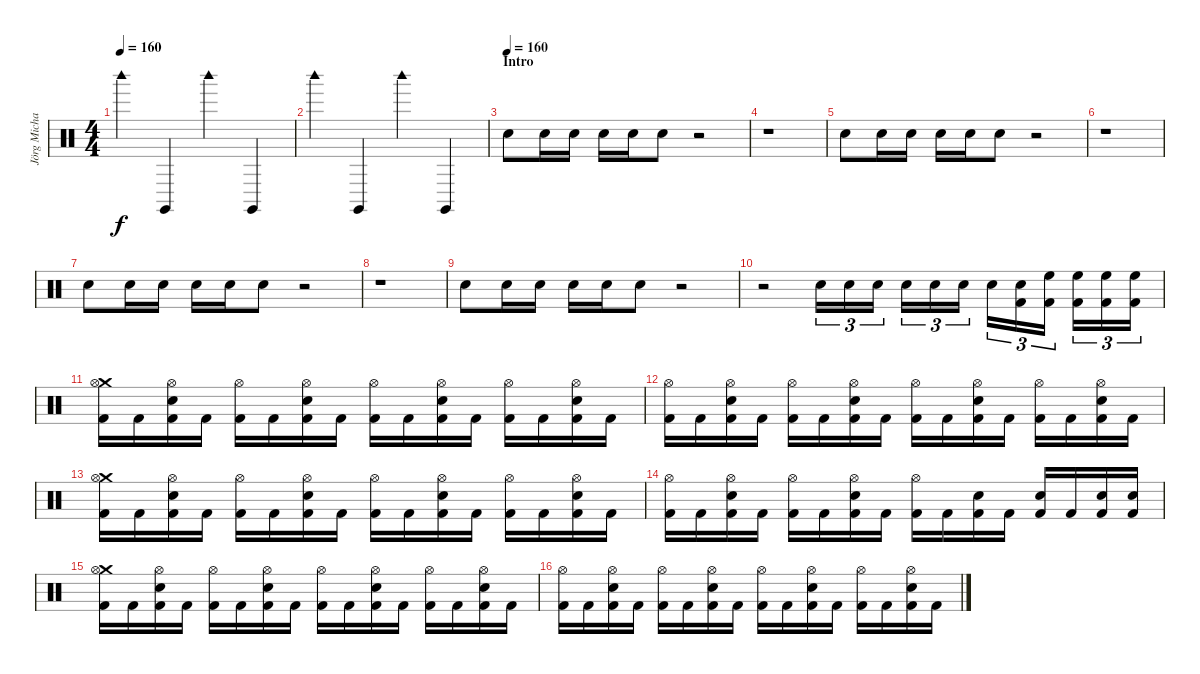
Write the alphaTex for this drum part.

\track ("Jörg Michael" "Jörg Micha") {instrument percussion}
\staff {score}
\articulation defaults
\ts (4 4)
\tempo 160
\tempo 75
\tempo 160
\clef neutral
\ks c "Woodblock high (hit)".4{dy f volume 16} "Claves (hit)".4 "Woodblock high (hit)".4 "Claves (hit)".4
|
"Woodblock high (hit)".4 "Claves (hit)".4 "Woodblock high (hit)".4 "Claves (hit)".4 |
\section ("" "Intro")
\tempo (160)
"Electric Snare (hit)".8{volume 14} "Electric Snare (hit)".16 "Electric Snare (hit)".16 "Electric Snare (hit)".16 "Electric Snare (hit)".16 "Electric Snare (hit)".8 r.2 |
r.1 |
"Electric Snare (hit)".8 "Electric Snare (hit)".16 "Electric Snare (hit)".16 "Electric Snare (hit)".16 "Electric Snare (hit)".16 "Electric Snare (hit)".8 r.2 |
r.1 |
"Electric Snare (hit)".8 "Electric Snare (hit)".16 "Electric Snare (hit)".16 "Electric Snare (hit)".16 "Electric Snare (hit)".16 "Electric Snare (hit)".8 r.2 |
r.1 |
"Electric Snare (hit)".8 "Electric Snare (hit)".16 "Electric Snare (hit)".16 "Electric Snare (hit)".16 "Electric Snare (hit)".16 "Electric Snare (hit)".8 r.2 |
r.2 "Electric Snare (hit)".16{tu (3 2)} "Electric Snare (hit)".16{tu (3 2)} "Electric Snare (hit)".16{tu (3 2)} "Electric Snare (hit)".16{tu (3 2)} "Electric Snare (hit)".16{tu (3 2)} "Electric Snare (hit)".16{tu (3 2)} "Electric Snare (hit)".16{tu (3 2)} ("Electric Snare (hit)" "Kick (hit) 2").16{tu (3 2)} ("High Floor Tom (hit)" "Kick (hit) 2").16{tu (3 2)} ("High Floor Tom (hit)" "Kick (hit) 2").16{tu (3 2)} ("High Floor Tom (hit)" "Kick (hit) 2").16{tu (3 2)} ("High Floor Tom (hit)" "Kick (hit) 2").16{tu (3 2)} |
("Crash medium (hit)" "Hi-Hat (open)" "Kick (hit) 2").16 "Kick (hit) 2".16 ("Electric Snare (hit)" "Hi-Hat (open)" "Kick (hit) 2").16 "Kick (hit) 2".16 ("Hi-Hat (open)" "Kick (hit) 2").16 "Kick (hit) 2".16 ("Electric Snare (hit)" "Hi-Hat (open)" "Kick (hit) 2").16 "Kick (hit) 2".16 ("Hi-Hat (open)" "Kick (hit) 2").16 "Kick (hit) 2".16 ("Electric Snare (hit)" "Hi-Hat (open)" "Kick (hit) 2").16 "Kick (hit) 2".16 ("Hi-Hat (open)" "Kick (hit) 2").16 "Kick (hit) 2".16 ("Electric Snare (hit)" "Hi-Hat (open)" "Kick (hit) 2").16 "Kick (hit) 2".16 |
("Hi-Hat (open)" "Kick (hit) 2").16 "Kick (hit) 2".16 ("Electric Snare (hit)" "Hi-Hat (open)" "Kick (hit) 2").16 "Kick (hit) 2".16 ("Hi-Hat (open)" "Kick (hit) 2").16 "Kick (hit) 2".16 ("Electric Snare (hit)" "Hi-Hat (open)" "Kick (hit) 2").16 "Kick (hit) 2".16 ("Hi-Hat (open)" "Kick (hit) 2").16 "Kick (hit) 2".16 ("Electric Snare (hit)" "Hi-Hat (open)" "Kick (hit) 2").16 "Kick (hit) 2".16 ("Hi-Hat (open)" "Kick (hit) 2").16 "Kick (hit) 2".16 ("Electric Snare (hit)" "Hi-Hat (open)" "Kick (hit) 2").16 "Kick (hit) 2".16 |
("Crash medium (hit)" "Hi-Hat (open)" "Kick (hit) 2").16 "Kick (hit) 2".16 ("Electric Snare (hit)" "Hi-Hat (open)" "Kick (hit) 2").16 "Kick (hit) 2".16 ("Hi-Hat (open)" "Kick (hit) 2").16 "Kick (hit) 2".16 ("Electric Snare (hit)" "Hi-Hat (open)" "Kick (hit) 2").16 "Kick (hit) 2".16 ("Hi-Hat (open)" "Kick (hit) 2").16 "Kick (hit) 2".16 ("Electric Snare (hit)" "Hi-Hat (open)" "Kick (hit) 2").16 "Kick (hit) 2".16 ("Hi-Hat (open)" "Kick (hit) 2").16 "Kick (hit) 2".16 ("Electric Snare (hit)" "Hi-Hat (open)" "Kick (hit) 2").16 "Kick (hit) 2".16 |
("Hi-Hat (open)" "Kick (hit) 2").16 "Kick (hit) 2".16 ("Electric Snare (hit)" "Hi-Hat (open)" "Kick (hit) 2").16 "Kick (hit) 2".16 ("Hi-Hat (open)" "Kick (hit) 2").16 "Kick (hit) 2".16 ("Electric Snare (hit)" "Hi-Hat (open)" "Kick (hit) 2").16 "Kick (hit) 2".16 ("Hi-Hat (open)" "Kick (hit) 2").16 "Kick (hit) 2".16 ("Electric Snare (hit)" "Kick (hit) 2").16 "Kick (hit) 2".16 ("Electric Snare (hit)" "Kick (hit) 2").16 "Kick (hit) 2".16 ("Electric Snare (hit)" "Kick (hit) 2").16 ("Electric Snare (hit)" "Kick (hit) 2").16 |
("Crash medium (hit)" "Hi-Hat (open)" "Kick (hit) 2").16 "Kick (hit) 2".16 ("Electric Snare (hit)" "Hi-Hat (open)" "Kick (hit) 2").16 "Kick (hit) 2".16 ("Hi-Hat (open)" "Kick (hit) 2").16 "Kick (hit) 2".16 ("Electric Snare (hit)" "Hi-Hat (open)" "Kick (hit) 2").16 "Kick (hit) 2".16 ("Hi-Hat (open)" "Kick (hit) 2").16 "Kick (hit) 2".16 ("Electric Snare (hit)" "Hi-Hat (open)" "Kick (hit) 2").16 "Kick (hit) 2".16 ("Hi-Hat (open)" "Kick (hit) 2").16 "Kick (hit) 2".16 ("Electric Snare (hit)" "Hi-Hat (open)" "Kick (hit) 2").16 "Kick (hit) 2".16 |
("Hi-Hat (open)" "Kick (hit) 2").16 "Kick (hit) 2".16 ("Electric Snare (hit)" "Hi-Hat (open)" "Kick (hit) 2").16 "Kick (hit) 2".16 ("Hi-Hat (open)" "Kick (hit) 2").16 "Kick (hit) 2".16 ("Electric Snare (hit)" "Hi-Hat (open)" "Kick (hit) 2").16 "Kick (hit) 2".16 ("Hi-Hat (open)" "Kick (hit) 2").16 "Kick (hit) 2".16 ("Electric Snare (hit)" "Hi-Hat (open)" "Kick (hit) 2").16 "Kick (hit) 2".16 ("Hi-Hat (open)" "Kick (hit) 2").16 "Kick (hit) 2".16 ("Electric Snare (hit)" "Hi-Hat (open)" "Kick (hit) 2").16 "Kick (hit) 2".16
